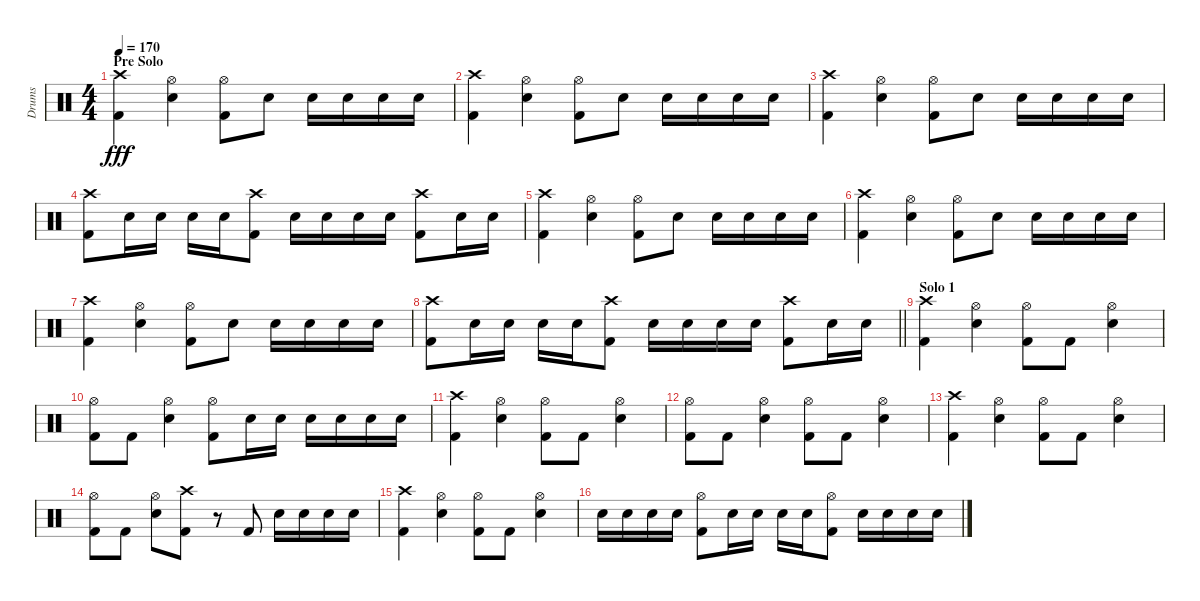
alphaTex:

\track ("Drums" "Drums") {instrument percussion}
\staff {score}
\articulation defaults
\ts (4 4)
\section ("" "Pre Solo")
\tempo 170
\clef neutral
\ks c
("Crash high (hit)" "Kick (hit) 2").4{dy fff} ("Hi-Hat (open)" "Snare (hit) 2").4 ("Hi-Hat (open)" "Kick (hit) 2").8 "Snare (hit) 2".8 "Snare (hit) 2".16 "Snare (hit) 2".16 "Snare (hit) 2".16 "Snare (hit) 2".16 |
("Crash high (hit)" "Kick (hit) 2").4 ("Hi-Hat (open)" "Snare (hit) 2").4 ("Hi-Hat (open)" "Kick (hit) 2").8 "Snare (hit) 2".8 "Snare (hit) 2".16 "Snare (hit) 2".16 "Snare (hit) 2".16 "Snare (hit) 2".16 |
("Crash high (hit)" "Kick (hit) 2").4 ("Hi-Hat (open)" "Snare (hit) 2").4 ("Hi-Hat (open)" "Kick (hit) 2").8 "Snare (hit) 2".8 "Snare (hit) 2".16 "Snare (hit) 2".16 "Snare (hit) 2".16 "Snare (hit) 2".16 |
("Crash high (hit)" "Kick (hit) 2").8 "Snare (hit) 2".16 "Snare (hit) 2".16 "Snare (hit) 2".16 "Snare (hit) 2".16 ("Crash high (hit)" "Kick (hit) 2").8 "Snare (hit) 2".16 "Snare (hit) 2".16 "Snare (hit) 2".16 "Snare (hit) 2".16 ("Crash high (hit)" "Kick (hit) 2").8 "Snare (hit) 2".16 "Snare (hit) 2".16 |
("Crash high (hit)" "Kick (hit) 2").4 ("Hi-Hat (open)" "Snare (hit) 2").4 ("Hi-Hat (open)" "Kick (hit) 2").8 "Snare (hit) 2".8 "Snare (hit) 2".16 "Snare (hit) 2".16 "Snare (hit) 2".16 "Snare (hit) 2".16 |
("Crash high (hit)" "Kick (hit) 2").4 ("Hi-Hat (open)" "Snare (hit) 2").4 ("Hi-Hat (open)" "Kick (hit) 2").8 "Snare (hit) 2".8 "Snare (hit) 2".16 "Snare (hit) 2".16 "Snare (hit) 2".16 "Snare (hit) 2".16 |
("Crash high (hit)" "Kick (hit) 2").4 ("Hi-Hat (open)" "Snare (hit) 2").4 ("Hi-Hat (open)" "Kick (hit) 2").8 "Snare (hit) 2".8 "Snare (hit) 2".16 "Snare (hit) 2".16 "Snare (hit) 2".16 "Snare (hit) 2".16 |
\barLineRight lightlight
("Crash high (hit)" "Kick (hit) 2").8 "Snare (hit) 2".16 "Snare (hit) 2".16 "Snare (hit) 2".16 "Snare (hit) 2".16 ("Crash high (hit)" "Kick (hit) 2").8 "Snare (hit) 2".16 "Snare (hit) 2".16 "Snare (hit) 2".16 "Snare (hit) 2".16 ("Crash high (hit)" "Kick (hit) 2").8 "Snare (hit) 2".16 "Snare (hit) 2".16 |
\section ("" "Solo 1")
("Crash high (hit)" "Kick (hit) 2").4 ("Hi-Hat (open)" "Snare (hit) 2").4 ("Hi-Hat (open)" "Kick (hit) 2").8 "Kick (hit) 2".8 ("Hi-Hat (open)" "Snare (hit) 2").4 |
("Hi-Hat (open)" "Kick (hit) 2").8 "Kick (hit) 2".8 ("Hi-Hat (open)" "Snare (hit) 2").4 ("Hi-Hat (open)" "Kick (hit) 2").8 "Snare (hit) 2".16 "Snare (hit) 2".16 "Snare (hit) 2".16 "Snare (hit) 2".16 "Snare (hit) 2".16 "Snare (hit) 2".16 |
("Crash high (hit)" "Kick (hit) 2").4 ("Hi-Hat (open)" "Snare (hit) 2").4 ("Hi-Hat (open)" "Kick (hit) 2").8 "Kick (hit) 2".8 ("Hi-Hat (open)" "Snare (hit) 2").4 |
("Hi-Hat (open)" "Kick (hit) 2").8 "Kick (hit) 2".8 ("Hi-Hat (open)" "Snare (hit) 2").4 ("Hi-Hat (open)" "Kick (hit) 2").8 "Kick (hit) 2".8 ("Hi-Hat (open)" "Snare (hit) 2").4 |
("Crash high (hit)" "Kick (hit) 2").4 ("Hi-Hat (open)" "Snare (hit) 2").4 ("Hi-Hat (open)" "Kick (hit) 2").8 "Kick (hit) 2".8 ("Hi-Hat (open)" "Snare (hit) 2").4 |
("Hi-Hat (open)" "Kick (hit) 2").8 "Kick (hit) 2".8 ("Hi-Hat (open)" "Snare (hit) 2").8 ("Crash high (hit)" "Kick (hit) 2").8 r.8 "Kick (hit) 2".8 "Snare (hit) 2".16 "Snare (hit) 2".16 "Snare (hit) 2".16 "Snare (hit) 2".16 |
("Crash high (hit)" "Kick (hit) 2").4 ("Hi-Hat (open)" "Snare (hit) 2").4 ("Hi-Hat (open)" "Kick (hit) 2").8 "Kick (hit) 2".8 ("Hi-Hat (open)" "Snare (hit) 2").4 |
"Snare (hit) 2".16 "Snare (hit) 2".16 "Snare (hit) 2".16 "Snare (hit) 2".16 ("Hi-Hat (open)" "Kick (hit) 2").8 "Snare (hit) 2".16 "Snare (hit) 2".16 "Snare (hit) 2".16 "Snare (hit) 2".16 ("Hi-Hat (open)" "Kick (hit) 2").8 "Snare (hit) 2".16 "Snare (hit) 2".16 "Snare (hit) 2".16 "Snare (hit) 2".16
